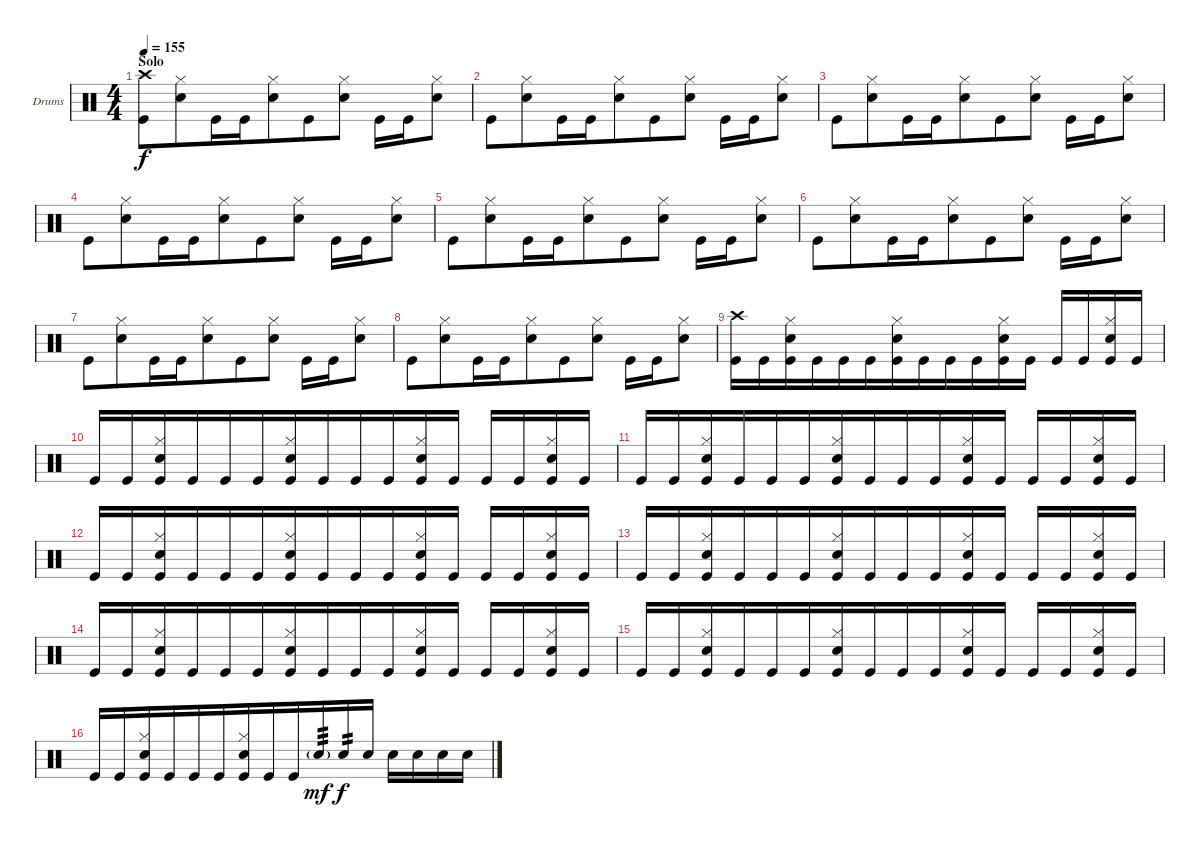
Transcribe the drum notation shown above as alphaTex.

\bracketExtendMode groupsimilarinstruments
\firstSystemTrackNameOrientation horizontal
\otherSystemsTrackNameOrientation horizontal
\track ("Drumkit" "Drums") {instrument percussion}
\staff {score}
\articulation defaults
\ts (4 4)
\beaming (8 6 6)
\section ("" "Solo")
\tempo 155
\clef neutral
\ks c
("Crash high (hit)" "Kick (hit)").8{dy f} ("Hi-Hat (closed)" "Snare (hit) 2").8 "Kick (hit)".16 "Kick (hit)".16 ("Hi-Hat (closed)" "Snare (hit) 2").8 "Kick (hit)".8 ("Hi-Hat (closed)" "Snare (hit) 2").8 "Kick (hit)".16 "Kick (hit)".16 ("Hi-Hat (closed)" "Snare (hit) 2").8 |
"Kick (hit)".8 ("Hi-Hat (closed)" "Snare (hit) 2").8 "Kick (hit)".16 "Kick (hit)".16 ("Hi-Hat (closed)" "Snare (hit) 2").8 "Kick (hit)".8 ("Hi-Hat (closed)" "Snare (hit) 2").8 "Kick (hit)".16 "Kick (hit)".16 ("Hi-Hat (closed)" "Snare (hit) 2").8 |
"Kick (hit)".8 ("Hi-Hat (closed)" "Snare (hit) 2").8 "Kick (hit)".16 "Kick (hit)".16 ("Hi-Hat (closed)" "Snare (hit) 2").8 "Kick (hit)".8 ("Hi-Hat (closed)" "Snare (hit) 2").8 "Kick (hit)".16 "Kick (hit)".16 ("Hi-Hat (closed)" "Snare (hit) 2").8 |
"Kick (hit)".8 ("Hi-Hat (closed)" "Snare (hit) 2").8 "Kick (hit)".16 "Kick (hit)".16 ("Hi-Hat (closed)" "Snare (hit) 2").8 "Kick (hit)".8 ("Hi-Hat (closed)" "Snare (hit) 2").8 "Kick (hit)".16 "Kick (hit)".16 ("Hi-Hat (closed)" "Snare (hit) 2").8 |
"Kick (hit)".8 ("Hi-Hat (closed)" "Snare (hit) 2").8 "Kick (hit)".16 "Kick (hit)".16 ("Hi-Hat (closed)" "Snare (hit) 2").8 "Kick (hit)".8 ("Hi-Hat (closed)" "Snare (hit) 2").8 "Kick (hit)".16 "Kick (hit)".16 ("Hi-Hat (closed)" "Snare (hit) 2").8 |
"Kick (hit)".8 ("Hi-Hat (closed)" "Snare (hit) 2").8 "Kick (hit)".16 "Kick (hit)".16 ("Hi-Hat (closed)" "Snare (hit) 2").8 "Kick (hit)".8 ("Hi-Hat (closed)" "Snare (hit) 2").8 "Kick (hit)".16 "Kick (hit)".16 ("Hi-Hat (closed)" "Snare (hit) 2").8 |
"Kick (hit)".8 ("Hi-Hat (closed)" "Snare (hit) 2").8 "Kick (hit)".16 "Kick (hit)".16 ("Hi-Hat (closed)" "Snare (hit) 2").8 "Kick (hit)".8 ("Hi-Hat (closed)" "Snare (hit) 2").8 "Kick (hit)".16 "Kick (hit)".16 ("Hi-Hat (closed)" "Snare (hit) 2").8 |
"Kick (hit)".8 ("Hi-Hat (closed)" "Snare (hit) 2").8 "Kick (hit)".16 "Kick (hit)".16 ("Hi-Hat (closed)" "Snare (hit) 2").8 "Kick (hit)".8 ("Hi-Hat (closed)" "Snare (hit) 2").8 "Kick (hit)".16 "Kick (hit)".16 ("Hi-Hat (closed)" "Snare (hit) 2").8 |
("Crash high (hit)" "Kick (hit)").16 "Kick (hit)".16 ("Hi-Hat (closed)" "Snare (hit) 2" "Kick (hit)").16 "Kick (hit)".16 "Kick (hit)".16 "Kick (hit)".16 ("Hi-Hat (closed)" "Snare (hit) 2" "Kick (hit)").16 "Kick (hit)".16 "Kick (hit)".16 "Kick (hit)".16 ("Hi-Hat (closed)" "Snare (hit) 2" "Kick (hit)").16 "Kick (hit)".16 "Kick (hit)".16 "Kick (hit)".16 ("Hi-Hat (closed)" "Snare (hit) 2" "Kick (hit)").16 "Kick (hit)".16 |
"Kick (hit)".16 "Kick (hit)".16 ("Hi-Hat (closed)" "Snare (hit) 2" "Kick (hit)").16 "Kick (hit)".16 "Kick (hit)".16 "Kick (hit)".16 ("Hi-Hat (closed)" "Snare (hit) 2" "Kick (hit)").16 "Kick (hit)".16 "Kick (hit)".16 "Kick (hit)".16 ("Hi-Hat (closed)" "Snare (hit) 2" "Kick (hit)").16 "Kick (hit)".16 "Kick (hit)".16 "Kick (hit)".16 ("Hi-Hat (closed)" "Snare (hit) 2" "Kick (hit)").16 "Kick (hit)".16 |
"Kick (hit)".16 "Kick (hit)".16 ("Hi-Hat (closed)" "Snare (hit) 2" "Kick (hit)").16 "Kick (hit)".16 "Kick (hit)".16 "Kick (hit)".16 ("Hi-Hat (closed)" "Snare (hit) 2" "Kick (hit)").16 "Kick (hit)".16 "Kick (hit)".16 "Kick (hit)".16 ("Hi-Hat (closed)" "Snare (hit) 2" "Kick (hit)").16 "Kick (hit)".16 "Kick (hit)".16 "Kick (hit)".16 ("Hi-Hat (closed)" "Snare (hit) 2" "Kick (hit)").16 "Kick (hit)".16 |
"Kick (hit)".16 "Kick (hit)".16 ("Hi-Hat (closed)" "Snare (hit) 2" "Kick (hit)").16 "Kick (hit)".16 "Kick (hit)".16 "Kick (hit)".16 ("Hi-Hat (closed)" "Snare (hit) 2" "Kick (hit)").16 "Kick (hit)".16 "Kick (hit)".16 "Kick (hit)".16 ("Hi-Hat (closed)" "Snare (hit) 2" "Kick (hit)").16 "Kick (hit)".16 "Kick (hit)".16 "Kick (hit)".16 ("Hi-Hat (closed)" "Snare (hit) 2" "Kick (hit)").16 "Kick (hit)".16 |
"Kick (hit)".16 "Kick (hit)".16 ("Hi-Hat (closed)" "Snare (hit) 2" "Kick (hit)").16 "Kick (hit)".16 "Kick (hit)".16 "Kick (hit)".16 ("Hi-Hat (closed)" "Snare (hit) 2" "Kick (hit)").16 "Kick (hit)".16 "Kick (hit)".16 "Kick (hit)".16 ("Hi-Hat (closed)" "Snare (hit) 2" "Kick (hit)").16 "Kick (hit)".16 "Kick (hit)".16 "Kick (hit)".16 ("Hi-Hat (closed)" "Snare (hit) 2" "Kick (hit)").16 "Kick (hit)".16 |
"Kick (hit)".16 "Kick (hit)".16 ("Hi-Hat (closed)" "Snare (hit) 2" "Kick (hit)").16 "Kick (hit)".16 "Kick (hit)".16 "Kick (hit)".16 ("Hi-Hat (closed)" "Snare (hit) 2" "Kick (hit)").16 "Kick (hit)".16 "Kick (hit)".16 "Kick (hit)".16 ("Hi-Hat (closed)" "Snare (hit) 2" "Kick (hit)").16 "Kick (hit)".16 "Kick (hit)".16 "Kick (hit)".16 ("Hi-Hat (closed)" "Snare (hit) 2" "Kick (hit)").16 "Kick (hit)".16 |
"Kick (hit)".16 "Kick (hit)".16 ("Hi-Hat (closed)" "Snare (hit) 2" "Kick (hit)").16 "Kick (hit)".16 "Kick (hit)".16 "Kick (hit)".16 ("Hi-Hat (closed)" "Snare (hit) 2" "Kick (hit)").16 "Kick (hit)".16 "Kick (hit)".16 "Kick (hit)".16 ("Hi-Hat (closed)" "Snare (hit) 2" "Kick (hit)").16 "Kick (hit)".16 "Kick (hit)".16 "Kick (hit)".16 ("Hi-Hat (closed)" "Snare (hit) 2" "Kick (hit)").16 "Kick (hit)".16 |
"Kick (hit)".16 "Kick (hit)".16 ("Hi-Hat (closed)" "Snare (hit) 2" "Kick (hit)").16 "Kick (hit)".16 "Kick (hit)".16 "Kick (hit)".16 ("Hi-Hat (closed)" "Snare (hit) 2" "Kick (hit)").16 "Kick (hit)".16 "Kick (hit)".16 "Snare (hit) 2"{g}.16{tp 3 dy mf} "Snare (hit) 2".16{tp 2 dy f} "Snare (hit) 2".16 "Snare (hit) 2".16 "Snare (hit) 2".16 "Snare (hit) 2".16 "Snare (hit) 2".16
